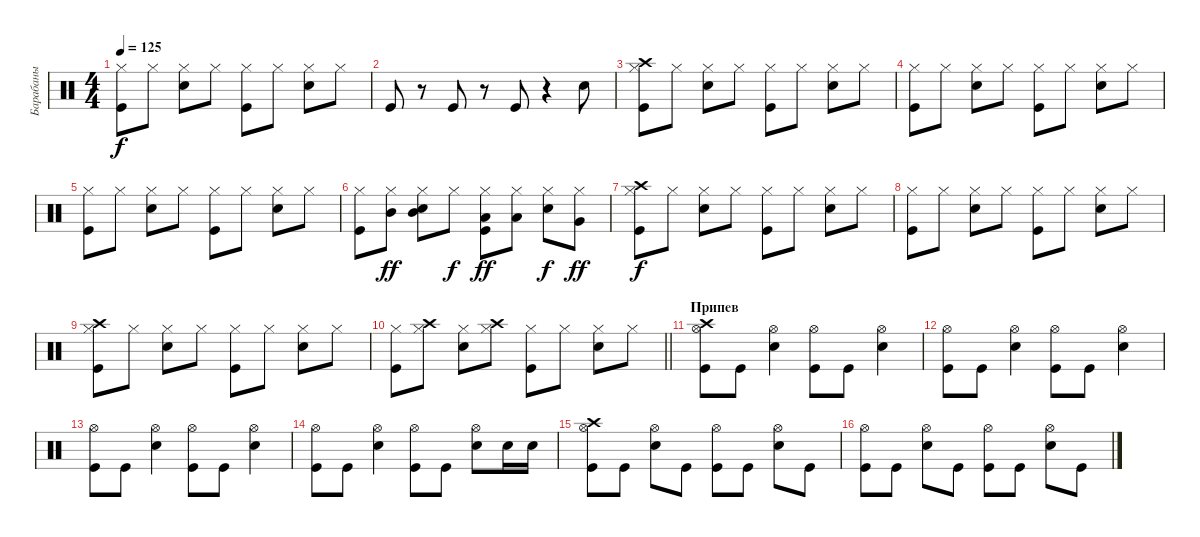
\track ("Барабаны" "Барабаны") {instrument percussion}
\staff {score}
\articulation defaults
\ts (4 4)
\tempo 125
\clef neutral
\ks c
("Kick (hit)" "Hi-Hat (closed)").8{dy f} "Hi-Hat (closed)".8 ("Snare (hit) 2" "Hi-Hat (closed)").8 "Hi-Hat (closed)".8 ("Kick (hit)" "Hi-Hat (closed)").8 "Hi-Hat (closed)".8 ("Snare (hit) 2" "Hi-Hat (closed)").8 "Hi-Hat (closed)".8 |
"Kick (hit)".8 r.8 "Kick (hit)".8 r.8 "Kick (hit)".8 r.4 "Snare (hit) 2".8 |
("Kick (hit)" "Hi-Hat (closed)" "Crash high (hit)").8 "Hi-Hat (closed)".8 ("Snare (hit) 2" "Hi-Hat (closed)").8 "Hi-Hat (closed)".8 ("Kick (hit)" "Hi-Hat (closed)").8 "Hi-Hat (closed)".8 ("Snare (hit) 2" "Hi-Hat (closed)").8 "Hi-Hat (closed)".8 |
("Kick (hit)" "Hi-Hat (closed)").8 "Hi-Hat (closed)".8 ("Snare (hit) 2" "Hi-Hat (closed)").8 "Hi-Hat (closed)".8 ("Kick (hit)" "Hi-Hat (closed)").8 "Hi-Hat (closed)".8 ("Snare (hit) 2" "Hi-Hat (closed)").8 "Hi-Hat (closed)".8 |
("Kick (hit)" "Hi-Hat (closed)").8 "Hi-Hat (closed)".8 ("Snare (hit) 2" "Hi-Hat (closed)").8 "Hi-Hat (closed)".8 ("Kick (hit)" "Hi-Hat (closed)").8 "Hi-Hat (closed)".8 ("Snare (hit) 2" "Hi-Hat (closed)").8 "Hi-Hat (closed)".8 |
("Kick (hit)" "Hi-Hat (closed)").8 ("Hi-Hat (closed)" "Mid Tom (hit)").8{dy ff} ("Snare (hit) 2" "Hi-Hat (closed)" "Mid Tom (hit)").8 "Hi-Hat (closed)".8{dy f} ("Kick (hit)" "Hi-Hat (closed)" "Low Tom (hit)").8{dy ff} ("Hi-Hat (closed)" "Low Tom (hit)").8 ("Snare (hit) 2" "Hi-Hat (closed)").8{dy f} ("Hi-Hat (closed)" "Very Low Tom (hit)").8{dy ff} |
("Kick (hit)" "Hi-Hat (closed)" "Crash high (hit)").8{dy f} "Hi-Hat (closed)".8 ("Snare (hit) 2" "Hi-Hat (closed)").8 "Hi-Hat (closed)".8 ("Kick (hit)" "Hi-Hat (closed)").8 "Hi-Hat (closed)".8 ("Snare (hit) 2" "Hi-Hat (closed)").8 "Hi-Hat (closed)".8 |
("Kick (hit)" "Hi-Hat (closed)").8 "Hi-Hat (closed)".8 ("Snare (hit) 2" "Hi-Hat (closed)").8 "Hi-Hat (closed)".8 ("Kick (hit)" "Hi-Hat (closed)").8 "Hi-Hat (closed)".8 ("Snare (hit) 2" "Hi-Hat (closed)").8 "Hi-Hat (closed)".8 |
("Kick (hit)" "Hi-Hat (closed)" "Crash high (hit)").8 "Hi-Hat (closed)".8 ("Snare (hit) 2" "Hi-Hat (closed)").8 "Hi-Hat (closed)".8 ("Kick (hit)" "Hi-Hat (closed)").8 "Hi-Hat (closed)".8 ("Snare (hit) 2" "Hi-Hat (closed)").8 "Hi-Hat (closed)".8 |
\barLineRight lightlight
("Kick (hit)" "Hi-Hat (closed)").8 ("Hi-Hat (closed)" "Crash high (hit)").8 ("Snare (hit) 2" "Hi-Hat (closed)").8 ("Hi-Hat (closed)" "Crash high (hit)").8 ("Kick (hit)" "Hi-Hat (closed)").8 "Hi-Hat (closed)".8 ("Snare (hit) 2" "Hi-Hat (closed)").8 "Hi-Hat (closed)".8 |
\section ("" "Припев")
("Kick (hit)" "Hi-Hat (open)" "Crash high (hit)").8 "Kick (hit)".8 ("Snare (hit) 2" "Hi-Hat (open)").4 ("Kick (hit)" "Hi-Hat (open)").8 "Kick (hit)".8 ("Snare (hit) 2" "Hi-Hat (open)").4 |
("Kick (hit)" "Hi-Hat (open)").8 "Kick (hit)".8 ("Snare (hit) 2" "Hi-Hat (open)").4 ("Kick (hit)" "Hi-Hat (open)").8 "Kick (hit)".8 ("Snare (hit) 2" "Hi-Hat (open)").4 |
("Kick (hit)" "Hi-Hat (open)").8 "Kick (hit)".8 ("Snare (hit) 2" "Hi-Hat (open)").4 ("Kick (hit)" "Hi-Hat (open)").8 "Kick (hit)".8 ("Snare (hit) 2" "Hi-Hat (open)").4 |
("Kick (hit)" "Hi-Hat (open)").8 "Kick (hit)".8 ("Snare (hit) 2" "Hi-Hat (open)").4 ("Kick (hit)" "Hi-Hat (open)").8 "Kick (hit)".8 ("Snare (hit) 2" "Hi-Hat (open)").8 "Snare (hit) 2".16 "Snare (hit) 2".16 |
("Kick (hit)" "Hi-Hat (open)" "Crash high (hit)").8 "Kick (hit)".8 ("Snare (hit) 2" "Hi-Hat (open)").8 "Kick (hit)".8 ("Kick (hit)" "Hi-Hat (open)").8 "Kick (hit)".8 ("Snare (hit) 2" "Hi-Hat (open)").8 "Kick (hit)".8 |
("Kick (hit)" "Hi-Hat (open)").8 "Kick (hit)".8 ("Snare (hit) 2" "Hi-Hat (open)").8 "Kick (hit)".8 ("Kick (hit)" "Hi-Hat (open)").8 "Kick (hit)".8 ("Snare (hit) 2" "Hi-Hat (open)").8 "Kick (hit)".8
